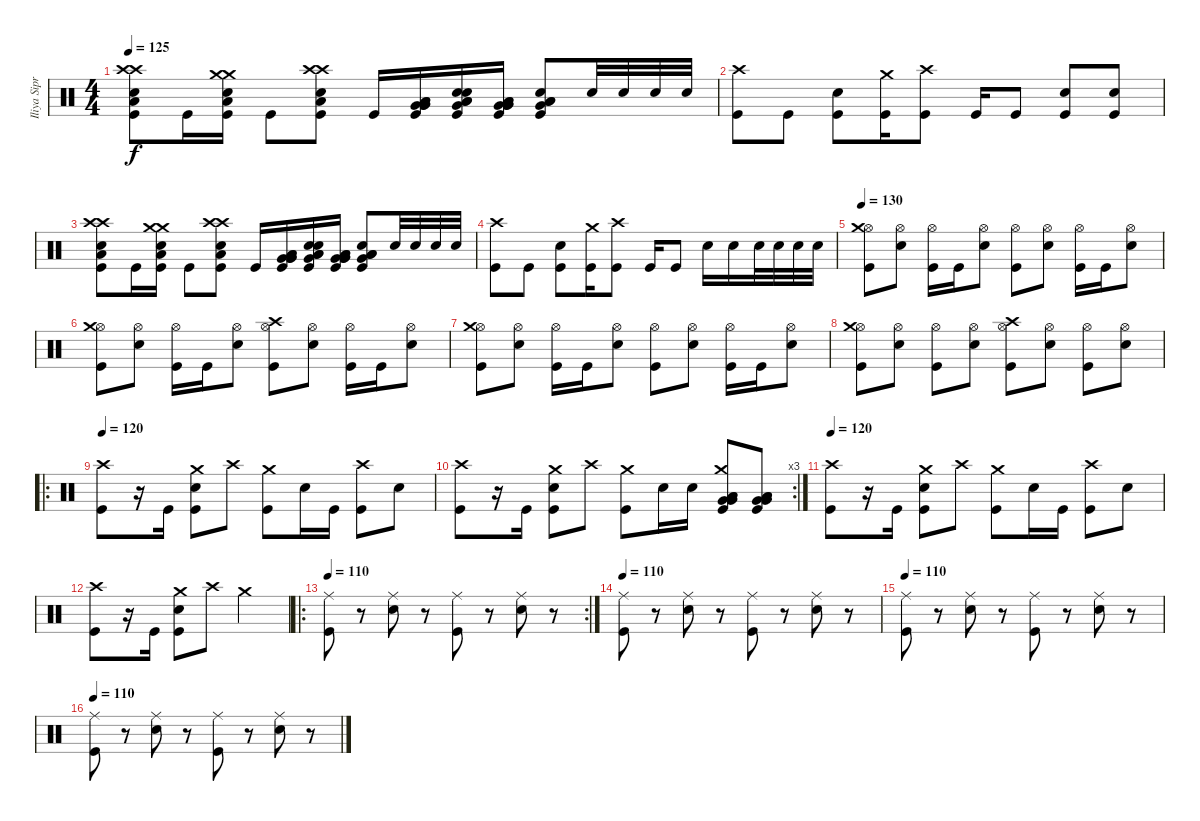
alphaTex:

\track ("Iliya Siprov (DRUMS)" "Iliya Sipr") {instrument percussion}
\staff {score}
\articulation defaults
\ts (4 4)
\tempo 125
\clef neutral
\ks c
("Crash high (hit)" "Crash high (hit)" "Electric Snare (hit)" "Low Floor Tom (hit)" "Kick (hit)").8{dy f} "Kick (hit)".16 ("Crash medium (hit)" "Crash medium (hit)" "Electric Snare (hit)" "Low Floor Tom (hit)" "Kick (hit)").16 "Kick (hit)".8 ("Crash high (hit)" "Crash high (hit)" "Electric Snare (hit)" "Low Floor Tom (hit)" "Kick (hit)").8 "Kick (hit)".16 ("Very Low Tom (hit)" "Low Floor Tom (hit)" "Very Low Tom (hit)" "Low Floor Tom (hit)" "Very Low Tom (hit)" "Kick (hit)").16 ("Very Low Tom (hit)" "Electric Snare (hit)" "Electric Snare (hit)" "Low Floor Tom (hit)" "Low Floor Tom (hit)" "Kick (hit)").16 ("Very Low Tom (hit)" "Very Low Tom (hit)" "Very Low Tom (hit)" "Low Floor Tom (hit)" "Low Floor Tom (hit)" "Kick (hit)").16 ("Low Floor Tom (hit)" "Low Floor Tom (hit)" "Very Low Tom (hit)" "Electric Snare (hit)" "Kick (hit)").8 "Electric Snare (hit)".32 "Electric Snare (hit)".32 "Electric Snare (hit)".32 "Electric Snare (hit)".32 |
("Crash high (hit)" "Kick (hit)").8 "Kick (hit)".8 ("Electric Snare (hit)" "Kick (hit)").8 ("Crash medium (hit)" "Kick (hit)").16 ("Crash high (hit)" "Kick (hit)").8 "Kick (hit)".16 "Kick (hit)".8 ("Electric Snare (hit)" "Kick (hit)").8 ("Electric Snare (hit)" "Kick (hit)").8 |
("Crash high (hit)" "Crash high (hit)" "Electric Snare (hit)" "Low Floor Tom (hit)" "Kick (hit)").8 "Kick (hit)".16 ("Crash medium (hit)" "Crash medium (hit)" "Electric Snare (hit)" "Low Floor Tom (hit)" "Kick (hit)").16 "Kick (hit)".8 ("Crash high (hit)" "Crash high (hit)" "Electric Snare (hit)" "Low Floor Tom (hit)" "Kick (hit)").8 "Kick (hit)".16 ("Very Low Tom (hit)" "Low Floor Tom (hit)" "Very Low Tom (hit)" "Low Floor Tom (hit)" "Very Low Tom (hit)" "Kick (hit)").16 ("Very Low Tom (hit)" "Electric Snare (hit)" "Electric Snare (hit)" "Low Floor Tom (hit)" "Low Floor Tom (hit)" "Kick (hit)").16 ("Very Low Tom (hit)" "Very Low Tom (hit)" "Very Low Tom (hit)" "Low Floor Tom (hit)" "Low Floor Tom (hit)" "Kick (hit)").16 ("Low Floor Tom (hit)" "Low Floor Tom (hit)" "Very Low Tom (hit)" "Electric Snare (hit)" "Kick (hit)").8 "Electric Snare (hit)".32 "Electric Snare (hit)".32 "Electric Snare (hit)".32 "Electric Snare (hit)".32 |
("Crash high (hit)" "Kick (hit)").8 "Kick (hit)".8 ("Electric Snare (hit)" "Kick (hit)").8 ("Crash medium (hit)" "Kick (hit)").16 ("Crash high (hit)" "Kick (hit)").8 "Kick (hit)".16 "Kick (hit)".8 "Electric Snare (hit)".16 "Electric Snare (hit)".16 "Electric Snare (hit)".32 "Electric Snare (hit)".32 "Electric Snare (hit)".32 "Electric Snare (hit)".32 |
\tempo 130
("Hi-Hat (open)" "Crash medium (hit)" "Kick (hit)").8 ("Hi-Hat (open)" "Electric Snare (hit)").8 ("Hi-Hat (open)" "Kick (hit)").16 "Kick (hit)".16 ("Hi-Hat (open)" "Electric Snare (hit)").8 ("Hi-Hat (open)" "Kick (hit)").8 ("Hi-Hat (open)" "Electric Snare (hit)").8 ("Hi-Hat (open)" "Kick (hit)").16 "Kick (hit)".16 ("Hi-Hat (open)" "Electric Snare (hit)").8 |
("Hi-Hat (open)" "Crash medium (hit)" "Kick (hit)").8 ("Hi-Hat (open)" "Electric Snare (hit)").8 ("Hi-Hat (open)" "Kick (hit)").16 "Kick (hit)".16 ("Hi-Hat (open)" "Electric Snare (hit)").8 ("Hi-Hat (open)" "Crash high (hit)" "Kick (hit)").8 ("Hi-Hat (open)" "Electric Snare (hit)").8 ("Hi-Hat (open)" "Kick (hit)").16 "Kick (hit)".16 ("Hi-Hat (open)" "Electric Snare (hit)").8 |
("Hi-Hat (open)" "Crash medium (hit)" "Kick (hit)").8 ("Hi-Hat (open)" "Electric Snare (hit)").8 ("Hi-Hat (open)" "Kick (hit)").16 "Kick (hit)".16 ("Hi-Hat (open)" "Electric Snare (hit)").8 ("Hi-Hat (open)" "Kick (hit)").8 ("Hi-Hat (open)" "Electric Snare (hit)").8 ("Hi-Hat (open)" "Kick (hit)").16 "Kick (hit)".16 ("Hi-Hat (open)" "Electric Snare (hit)").8 |
("Hi-Hat (open)" "Crash medium (hit)" "Kick (hit)").8 ("Hi-Hat (open)" "Electric Snare (hit)").8 ("Hi-Hat (open)" "Kick (hit)").8 ("Hi-Hat (open)" "Electric Snare (hit)").8 ("Hi-Hat (open)" "Crash high (hit)" "Kick (hit)").8 ("Hi-Hat (open)" "Electric Snare (hit)").8 ("Hi-Hat (open)" "Kick (hit)").8 ("Hi-Hat (open)" "Electric Snare (hit)").8 |
\ro
\tempo 120
("Crash high (hit)" "Kick (hit)").8 r.16 "Kick (hit)".16 ("Crash medium (hit)" "Electric Snare (hit)" "Kick (hit)").8 "Crash high (hit)".8 ("Crash medium (hit)" "Kick (hit)").8 "Electric Snare (hit)".16 "Kick (hit)".16 ("Crash high (hit)" "Kick (hit)").8 "Electric Snare (hit)".8 |
\rc 3
("Crash high (hit)" "Kick (hit)").8 r.16 "Kick (hit)".16 ("Crash medium (hit)" "Electric Snare (hit)" "Kick (hit)").8 "Crash high (hit)".8 ("Crash medium (hit)" "Kick (hit)").8 "Electric Snare (hit)".16 "Electric Snare (hit)".16 ("Crash medium (hit)" "Very Low Tom (hit)" "Very Low Tom (hit)" "Low Floor Tom (hit)" "Low Floor Tom (hit)" "Kick (hit)").8 ("Very Low Tom (hit)" "Very Low Tom (hit)" "Low Floor Tom (hit)" "Low Floor Tom (hit)" "Kick (hit)").8 |
\tempo 120
("Crash high (hit)" "Kick (hit)").8 r.16 "Kick (hit)".16 ("Crash medium (hit)" "Electric Snare (hit)" "Kick (hit)").8 "Crash high (hit)".8 ("Crash medium (hit)" "Kick (hit)").8 "Electric Snare (hit)".16 "Kick (hit)".16 ("Crash high (hit)" "Kick (hit)").8 "Electric Snare (hit)".8 |
("Crash high (hit)" "Kick (hit)").8 r.16 "Kick (hit)".16 ("Crash medium (hit)" "Electric Snare (hit)" "Kick (hit)").8 "Crash high (hit)".8 "Crash medium (hit)".2 |
\ro
\rc 2
\tempo 110
("Ride (middle)" "Kick (hit)").8 r.8 ("Ride (middle)" "Electric Snare (hit)").8 r.8 ("Ride (middle)" "Kick (hit)").8 r.8 ("Ride (middle)" "Electric Snare (hit)").8 r.8 |
\tempo 110
("Ride (middle)" "Kick (hit)").8 r.8 ("Ride (middle)" "Electric Snare (hit)").8 r.8 ("Ride (middle)" "Kick (hit)").8 r.8 ("Ride (middle)" "Electric Snare (hit)").8 r.8 |
\tempo 110
("Ride (middle)" "Kick (hit)").8 r.8 ("Ride (middle)" "Electric Snare (hit)").8 r.8 ("Ride (middle)" "Kick (hit)").8 r.8 ("Ride (middle)" "Electric Snare (hit)").8 r.8 |
\tempo 110
("Ride (middle)" "Kick (hit)").8 r.8 ("Ride (middle)" "Electric Snare (hit)").8 r.8 ("Ride (middle)" "Kick (hit)").8 r.8 ("Ride (middle)" "Electric Snare (hit)").8 r.8
